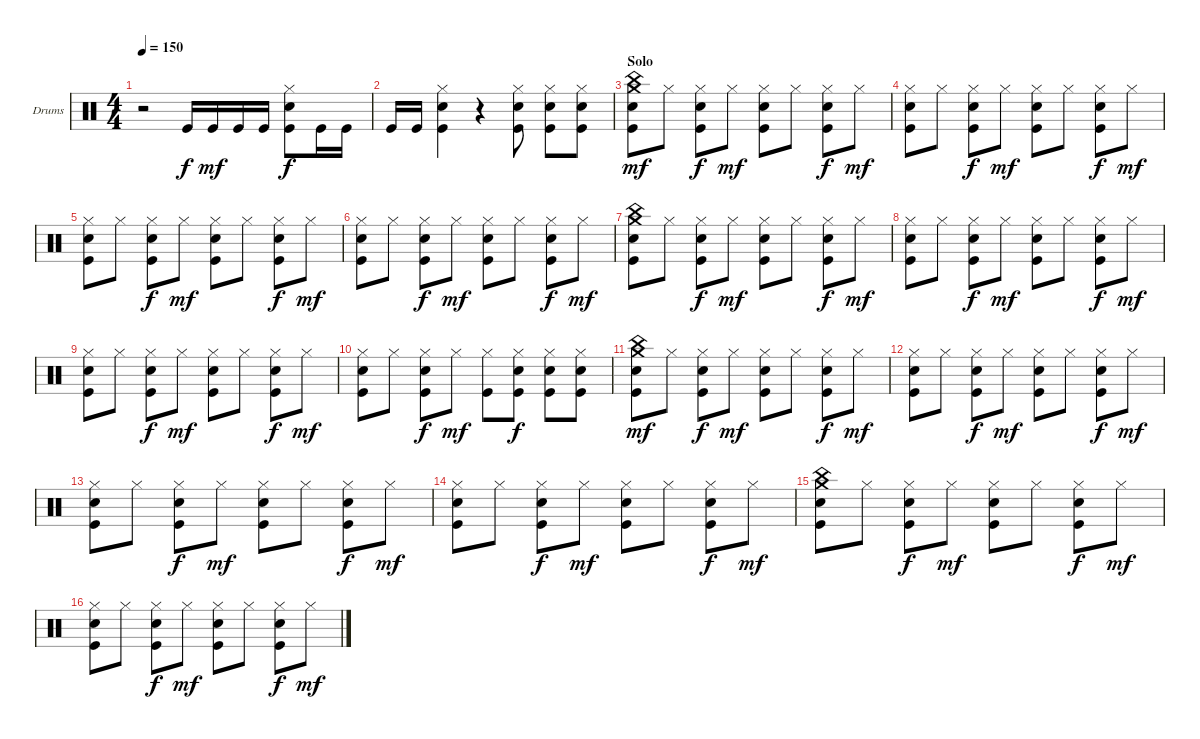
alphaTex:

\defaultSystemsLayout 4
\bracketExtendMode groupsimilarinstruments
\firstSystemTrackNameOrientation horizontal
\otherSystemsTrackNameOrientation horizontal
\track ("Drumkit" "Drums") {instrument percussion}
\staff {score}
\articulation defaults
\ts (4 4)
\tempo 150
\clef neutral
\ks c
r.2{dy mf} "Kick (hit)".16{dy f} "Kick (hit)".16{dy mf} "Kick (hit)".16 "Kick (hit)".16 ("Kick (hit)" "Snare (hit) 2" "Hi-Hat (closed)").8{dy f} "Kick (hit)".16 "Kick (hit)".16 |
"Kick (hit)".16 "Kick (hit)".16 ("Kick (hit)" "Snare (hit) 2" "Hi-Hat (closed)").4 r.4 ("Kick (hit)" "Snare (hit) 2" "Hi-Hat (closed)").8 ("Kick (hit)" "Snare (hit) 2" "Hi-Hat (closed)").8 ("Kick (hit)" "Snare (hit) 2" "Hi-Hat (closed)").8 |
\section ("" "Solo")
("Snare (hit) 2" "Kick (hit)" "Crash medium (hit)" "China (hit)").8{dy mf} "Hi-Hat (closed)".8 ("Kick (hit)" "Snare (hit) 2" "Hi-Hat (closed)").8{dy f} "Hi-Hat (closed)".8{dy mf} ("Kick (hit)" "Snare (hit) 2" "Hi-Hat (closed)").8 "Hi-Hat (closed)".8 ("Kick (hit)" "Snare (hit) 2" "Hi-Hat (closed)").8{dy f} "Hi-Hat (closed)".8{dy mf} |
("Snare (hit) 2" "Kick (hit)" "Hi-Hat (closed)").8 "Hi-Hat (closed)".8 ("Kick (hit)" "Snare (hit) 2" "Hi-Hat (closed)").8{dy f} "Hi-Hat (closed)".8{dy mf} ("Kick (hit)" "Snare (hit) 2" "Hi-Hat (closed)").8 "Hi-Hat (closed)".8 ("Kick (hit)" "Snare (hit) 2" "Hi-Hat (closed)").8{dy f} "Hi-Hat (closed)".8{dy mf} |
("Snare (hit) 2" "Kick (hit)" "Hi-Hat (closed)").8 "Hi-Hat (closed)".8 ("Kick (hit)" "Snare (hit) 2" "Hi-Hat (closed)").8{dy f} "Hi-Hat (closed)".8{dy mf} ("Kick (hit)" "Snare (hit) 2" "Hi-Hat (closed)").8 "Hi-Hat (closed)".8 ("Kick (hit)" "Snare (hit) 2" "Hi-Hat (closed)").8{dy f} "Hi-Hat (closed)".8{dy mf} |
("Snare (hit) 2" "Kick (hit)" "Hi-Hat (closed)").8 "Hi-Hat (closed)".8 ("Kick (hit)" "Snare (hit) 2" "Hi-Hat (closed)").8{dy f} "Hi-Hat (closed)".8{dy mf} ("Kick (hit)" "Snare (hit) 2" "Hi-Hat (closed)").8 "Hi-Hat (closed)".8 ("Kick (hit)" "Snare (hit) 2" "Hi-Hat (closed)").8{dy f} "Hi-Hat (closed)".8{dy mf} |
("Snare (hit) 2" "Kick (hit)" "Crash medium (hit)" "China (hit)").8 "Hi-Hat (closed)".8 ("Kick (hit)" "Snare (hit) 2" "Hi-Hat (closed)").8{dy f} "Hi-Hat (closed)".8{dy mf} ("Kick (hit)" "Snare (hit) 2" "Hi-Hat (closed)").8 "Hi-Hat (closed)".8 ("Kick (hit)" "Snare (hit) 2" "Hi-Hat (closed)").8{dy f} "Hi-Hat (closed)".8{dy mf} |
("Snare (hit) 2" "Kick (hit)" "Hi-Hat (closed)").8 "Hi-Hat (closed)".8 ("Kick (hit)" "Snare (hit) 2" "Hi-Hat (closed)").8{dy f} "Hi-Hat (closed)".8{dy mf} ("Kick (hit)" "Snare (hit) 2" "Hi-Hat (closed)").8 "Hi-Hat (closed)".8 ("Kick (hit)" "Snare (hit) 2" "Hi-Hat (closed)").8{dy f} "Hi-Hat (closed)".8{dy mf} |
("Snare (hit) 2" "Kick (hit)" "Hi-Hat (closed)").8 "Hi-Hat (closed)".8 ("Kick (hit)" "Snare (hit) 2" "Hi-Hat (closed)").8{dy f} "Hi-Hat (closed)".8{dy mf} ("Kick (hit)" "Snare (hit) 2" "Hi-Hat (closed)").8 "Hi-Hat (closed)".8 ("Kick (hit)" "Snare (hit) 2" "Hi-Hat (closed)").8{dy f} "Hi-Hat (closed)".8{dy mf} |
("Snare (hit) 2" "Kick (hit)" "Hi-Hat (closed)").8 "Hi-Hat (closed)".8 ("Kick (hit)" "Snare (hit) 2" "Hi-Hat (closed)").8{dy f} "Hi-Hat (closed)".8{dy mf} ("Kick (hit)" "Hi-Hat (closed)").8 ("Kick (hit)" "Snare (hit) 2" "Hi-Hat (closed)").8{dy f} ("Kick (hit)" "Snare (hit) 2" "Hi-Hat (closed)").8 ("Kick (hit)" "Snare (hit) 2" "Hi-Hat (closed)").8 |
("Snare (hit) 2" "Kick (hit)" "Crash medium (hit)" "China (hit)").8{dy mf} "Hi-Hat (closed)".8 ("Kick (hit)" "Snare (hit) 2" "Hi-Hat (closed)").8{dy f} "Hi-Hat (closed)".8{dy mf} ("Kick (hit)" "Snare (hit) 2" "Hi-Hat (closed)").8 "Hi-Hat (closed)".8 ("Kick (hit)" "Snare (hit) 2" "Hi-Hat (closed)").8{dy f} "Hi-Hat (closed)".8{dy mf} |
("Snare (hit) 2" "Kick (hit)" "Hi-Hat (closed)").8 "Hi-Hat (closed)".8 ("Kick (hit)" "Snare (hit) 2" "Hi-Hat (closed)").8{dy f} "Hi-Hat (closed)".8{dy mf} ("Kick (hit)" "Snare (hit) 2" "Hi-Hat (closed)").8 "Hi-Hat (closed)".8 ("Kick (hit)" "Snare (hit) 2" "Hi-Hat (closed)").8{dy f} "Hi-Hat (closed)".8{dy mf} |
("Snare (hit) 2" "Kick (hit)" "Hi-Hat (closed)").8 "Hi-Hat (closed)".8 ("Kick (hit)" "Snare (hit) 2" "Hi-Hat (closed)").8{dy f} "Hi-Hat (closed)".8{dy mf} ("Kick (hit)" "Snare (hit) 2" "Hi-Hat (closed)").8 "Hi-Hat (closed)".8 ("Kick (hit)" "Snare (hit) 2" "Hi-Hat (closed)").8{dy f} "Hi-Hat (closed)".8{dy mf} |
("Snare (hit) 2" "Kick (hit)" "Hi-Hat (closed)").8 "Hi-Hat (closed)".8 ("Kick (hit)" "Snare (hit) 2" "Hi-Hat (closed)").8{dy f} "Hi-Hat (closed)".8{dy mf} ("Kick (hit)" "Snare (hit) 2" "Hi-Hat (closed)").8 "Hi-Hat (closed)".8 ("Kick (hit)" "Snare (hit) 2" "Hi-Hat (closed)").8{dy f} "Hi-Hat (closed)".8{dy mf} |
("Snare (hit) 2" "Kick (hit)" "Crash medium (hit)" "China (hit)").8 "Hi-Hat (closed)".8 ("Kick (hit)" "Snare (hit) 2" "Hi-Hat (closed)").8{dy f} "Hi-Hat (closed)".8{dy mf} ("Kick (hit)" "Snare (hit) 2" "Hi-Hat (closed)").8 "Hi-Hat (closed)".8 ("Kick (hit)" "Snare (hit) 2" "Hi-Hat (closed)").8{dy f} "Hi-Hat (closed)".8{dy mf} |
("Snare (hit) 2" "Kick (hit)" "Hi-Hat (closed)").8 "Hi-Hat (closed)".8 ("Kick (hit)" "Snare (hit) 2" "Hi-Hat (closed)").8{dy f} "Hi-Hat (closed)".8{dy mf} ("Kick (hit)" "Snare (hit) 2" "Hi-Hat (closed)").8 "Hi-Hat (closed)".8 ("Kick (hit)" "Snare (hit) 2" "Hi-Hat (closed)").8{dy f} "Hi-Hat (closed)".8{dy mf}
